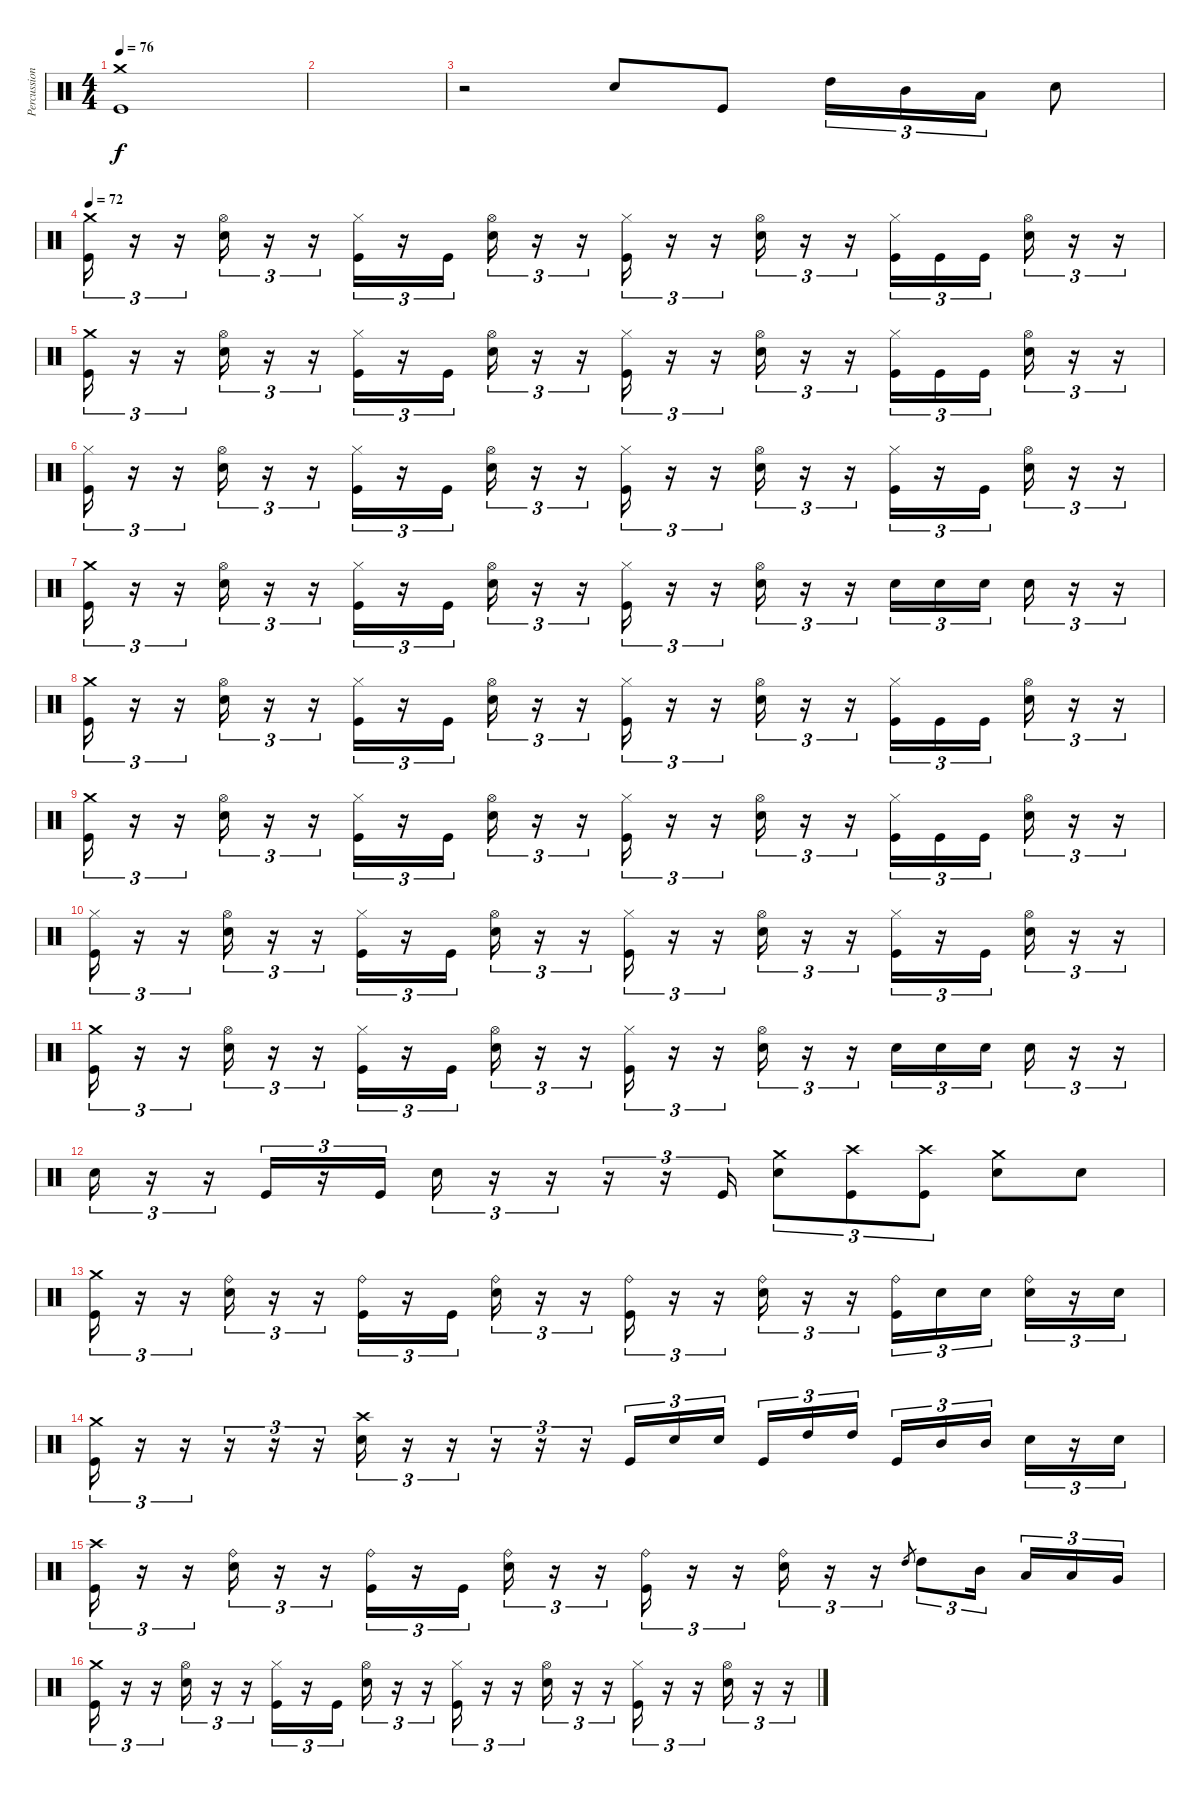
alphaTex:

\track ("Percussion" "Percussion") {instrument percussion}
\staff {score}
\articulation defaults
\ts (4 4)
\tempo 76
\clef neutral
\ks c
("Crash medium (hit)" "Kick (hit)").1{dy f} |
|
r.2 "Electric Snare (hit)".8 "Kick (hit)".8 "High Tom (hit)".16{tu (3 2)} "Mid Tom (hit)".16{tu (3 2)} "Low Tom (hit)".16{tu (3 2)} "Electric Snare (hit)".8 |
\tempo 72
("Crash medium (hit)" "Kick (hit)").16{tu (3 2)} r.16{tu (3 2)} r.16{tu (3 2)} ("Hi-Hat (open)" "Electric Snare (hit)").16{tu (3 2)} r.16{tu (3 2)} r.16{tu (3 2)} ("Hi-Hat (closed)" "Kick (hit)").16{tu (3 2)} r.16{tu (3 2)} "Kick (hit)".16{tu (3 2)} ("Hi-Hat (open)" "Electric Snare (hit)").16{tu (3 2)} r.16{tu (3 2)} r.16{tu (3 2)} ("Hi-Hat (closed)" "Kick (hit)").16{tu (3 2)} r.16{tu (3 2)} r.16{tu (3 2)} ("Hi-Hat (open)" "Electric Snare (hit)").16{tu (3 2)} r.16{tu (3 2)} r.16{tu (3 2)} ("Hi-Hat (closed)" "Kick (hit)").16{tu (3 2)} "Kick (hit)".16{tu (3 2)} "Kick (hit)".16{tu (3 2)} ("Hi-Hat (open)" "Electric Snare (hit)").16{tu (3 2)} r.16{tu (3 2)} r.16{tu (3 2)} |
("Crash medium (hit)" "Kick (hit)").16{tu (3 2)} r.16{tu (3 2)} r.16{tu (3 2)} ("Hi-Hat (open)" "Electric Snare (hit)").16{tu (3 2)} r.16{tu (3 2)} r.16{tu (3 2)} ("Hi-Hat (closed)" "Kick (hit)").16{tu (3 2)} r.16{tu (3 2)} "Kick (hit)".16{tu (3 2)} ("Hi-Hat (open)" "Electric Snare (hit)").16{tu (3 2)} r.16{tu (3 2)} r.16{tu (3 2)} ("Hi-Hat (closed)" "Kick (hit)").16{tu (3 2)} r.16{tu (3 2)} r.16{tu (3 2)} ("Hi-Hat (open)" "Electric Snare (hit)").16{tu (3 2)} r.16{tu (3 2)} r.16{tu (3 2)} ("Hi-Hat (closed)" "Kick (hit)").16{tu (3 2)} "Kick (hit)".16{tu (3 2)} "Kick (hit)".16{tu (3 2)} ("Hi-Hat (open)" "Electric Snare (hit)").16{tu (3 2)} r.16{tu (3 2)} r.16{tu (3 2)} |
("Hi-Hat (closed)" "Kick (hit)").16{tu (3 2)} r.16{tu (3 2)} r.16{tu (3 2)} ("Hi-Hat (open)" "Electric Snare (hit)").16{tu (3 2)} r.16{tu (3 2)} r.16{tu (3 2)} ("Hi-Hat (closed)" "Kick (hit)").16{tu (3 2)} r.16{tu (3 2)} "Kick (hit)".16{tu (3 2)} ("Hi-Hat (open)" "Electric Snare (hit)").16{tu (3 2)} r.16{tu (3 2)} r.16{tu (3 2)} ("Hi-Hat (closed)" "Kick (hit)").16{tu (3 2)} r.16{tu (3 2)} r.16{tu (3 2)} ("Hi-Hat (open)" "Electric Snare (hit)").16{tu (3 2)} r.16{tu (3 2)} r.16{tu (3 2)} ("Hi-Hat (closed)" "Kick (hit)").16{tu (3 2)} r.16{tu (3 2)} "Kick (hit)".16{tu (3 2)} ("Hi-Hat (open)" "Electric Snare (hit)").16{tu (3 2)} r.16{tu (3 2)} r.16{tu (3 2)} |
("Crash medium (hit)" "Kick (hit)").16{tu (3 2)} r.16{tu (3 2)} r.16{tu (3 2)} ("Hi-Hat (open)" "Electric Snare (hit)").16{tu (3 2)} r.16{tu (3 2)} r.16{tu (3 2)} ("Hi-Hat (closed)" "Kick (hit)").16{tu (3 2)} r.16{tu (3 2)} "Kick (hit)".16{tu (3 2)} ("Hi-Hat (open)" "Electric Snare (hit)").16{tu (3 2)} r.16{tu (3 2)} r.16{tu (3 2)} ("Hi-Hat (closed)" "Kick (hit)").16{tu (3 2)} r.16{tu (3 2)} r.16{tu (3 2)} ("Hi-Hat (open)" "Electric Snare (hit)").16{tu (3 2)} r.16{tu (3 2)} r.16{tu (3 2)} "Electric Snare (hit)".16{tu (3 2)} "Electric Snare (hit)".16{tu (3 2)} "Electric Snare (hit)".16{tu (3 2)} "Electric Snare (hit)".16{tu (3 2)} r.16{tu (3 2)} r.16{tu (3 2)} |
("Crash medium (hit)" "Kick (hit)").16{tu (3 2)} r.16{tu (3 2)} r.16{tu (3 2)} ("Hi-Hat (open)" "Electric Snare (hit)").16{tu (3 2)} r.16{tu (3 2)} r.16{tu (3 2)} ("Hi-Hat (closed)" "Kick (hit)").16{tu (3 2)} r.16{tu (3 2)} "Kick (hit)".16{tu (3 2)} ("Hi-Hat (open)" "Electric Snare (hit)").16{tu (3 2)} r.16{tu (3 2)} r.16{tu (3 2)} ("Hi-Hat (closed)" "Kick (hit)").16{tu (3 2)} r.16{tu (3 2)} r.16{tu (3 2)} ("Hi-Hat (open)" "Electric Snare (hit)").16{tu (3 2)} r.16{tu (3 2)} r.16{tu (3 2)} ("Hi-Hat (closed)" "Kick (hit)").16{tu (3 2)} "Kick (hit)".16{tu (3 2)} "Kick (hit)".16{tu (3 2)} ("Hi-Hat (open)" "Electric Snare (hit)").16{tu (3 2)} r.16{tu (3 2)} r.16{tu (3 2)} |
("Crash medium (hit)" "Kick (hit)").16{tu (3 2)} r.16{tu (3 2)} r.16{tu (3 2)} ("Hi-Hat (open)" "Electric Snare (hit)").16{tu (3 2)} r.16{tu (3 2)} r.16{tu (3 2)} ("Hi-Hat (closed)" "Kick (hit)").16{tu (3 2)} r.16{tu (3 2)} "Kick (hit)".16{tu (3 2)} ("Hi-Hat (open)" "Electric Snare (hit)").16{tu (3 2)} r.16{tu (3 2)} r.16{tu (3 2)} ("Hi-Hat (closed)" "Kick (hit)").16{tu (3 2)} r.16{tu (3 2)} r.16{tu (3 2)} ("Hi-Hat (open)" "Electric Snare (hit)").16{tu (3 2)} r.16{tu (3 2)} r.16{tu (3 2)} ("Hi-Hat (closed)" "Kick (hit)").16{tu (3 2)} "Kick (hit)".16{tu (3 2)} "Kick (hit)".16{tu (3 2)} ("Hi-Hat (open)" "Electric Snare (hit)").16{tu (3 2)} r.16{tu (3 2)} r.16{tu (3 2)} |
("Hi-Hat (closed)" "Kick (hit)").16{tu (3 2)} r.16{tu (3 2)} r.16{tu (3 2)} ("Hi-Hat (open)" "Electric Snare (hit)").16{tu (3 2)} r.16{tu (3 2)} r.16{tu (3 2)} ("Hi-Hat (closed)" "Kick (hit)").16{tu (3 2)} r.16{tu (3 2)} "Kick (hit)".16{tu (3 2)} ("Hi-Hat (open)" "Electric Snare (hit)").16{tu (3 2)} r.16{tu (3 2)} r.16{tu (3 2)} ("Hi-Hat (closed)" "Kick (hit)").16{tu (3 2)} r.16{tu (3 2)} r.16{tu (3 2)} ("Hi-Hat (open)" "Electric Snare (hit)").16{tu (3 2)} r.16{tu (3 2)} r.16{tu (3 2)} ("Hi-Hat (closed)" "Kick (hit)").16{tu (3 2)} r.16{tu (3 2)} "Kick (hit)".16{tu (3 2)} ("Hi-Hat (open)" "Electric Snare (hit)").16{tu (3 2)} r.16{tu (3 2)} r.16{tu (3 2)} |
("Crash medium (hit)" "Kick (hit)").16{tu (3 2)} r.16{tu (3 2)} r.16{tu (3 2)} ("Hi-Hat (open)" "Electric Snare (hit)").16{tu (3 2)} r.16{tu (3 2)} r.16{tu (3 2)} ("Hi-Hat (closed)" "Kick (hit)").16{tu (3 2)} r.16{tu (3 2)} "Kick (hit)".16{tu (3 2)} ("Hi-Hat (open)" "Electric Snare (hit)").16{tu (3 2)} r.16{tu (3 2)} r.16{tu (3 2)} ("Hi-Hat (closed)" "Kick (hit)").16{tu (3 2)} r.16{tu (3 2)} r.16{tu (3 2)} ("Hi-Hat (open)" "Electric Snare (hit)").16{tu (3 2)} r.16{tu (3 2)} r.16{tu (3 2)} "Electric Snare (hit)".16{tu (3 2)} "Electric Snare (hit)".16{tu (3 2)} "Electric Snare (hit)".16{tu (3 2)} "Electric Snare (hit)".16{tu (3 2)} r.16{tu (3 2)} r.16{tu (3 2)} |
"Electric Snare (hit)".16{tu (3 2)} r.16{tu (3 2)} r.16{tu (3 2)} "Kick (hit)".16{tu (3 2)} r.16{tu (3 2)} "Kick (hit)".16{tu (3 2)} "Electric Snare (hit)".16{tu (3 2)} r.16{tu (3 2)} r.16{tu (3 2)} r.16{tu (3 2)} r.16{tu (3 2)} "Kick (hit)".16{tu (3 2)} ("Crash medium (hit)" "Electric Snare (hit)").8{tu (3 2)} ("Crash high (hit)" "Kick (hit)").8{tu (3 2)} ("Crash high (hit)" "Kick (hit)").8{tu (3 2)} ("Crash medium (hit)" "Electric Snare (hit)").8 "Electric Snare (hit)".8 |
("Crash medium (hit)" "Kick (hit)").16{tu (3 2)} r.16{tu (3 2)} r.16{tu (3 2)} ("Ride (bell)" "Electric Snare (hit)").16{tu (3 2)} r.16{tu (3 2)} r.16{tu (3 2)} ("Ride (bell)" "Kick (hit)").16{tu (3 2)} r.16{tu (3 2)} "Kick (hit)".16{tu (3 2)} ("Ride (bell)" "Electric Snare (hit)").16{tu (3 2)} r.16{tu (3 2)} r.16{tu (3 2)} ("Ride (bell)" "Kick (hit)").16{tu (3 2)} r.16{tu (3 2)} r.16{tu (3 2)} ("Ride (bell)" "Electric Snare (hit)").16{tu (3 2)} r.16{tu (3 2)} r.16{tu (3 2)} ("Ride (bell)" "Kick (hit)").16{tu (3 2)} "Electric Snare (hit)".16{tu (3 2)} "Electric Snare (hit)".16{tu (3 2)} ("Ride (bell)" "Electric Snare (hit)").16{tu (3 2)} r.16{tu (3 2)} "Electric Snare (hit)".16{tu (3 2)} |
("Crash medium (hit)" "Kick (hit)").16{tu (3 2)} r.16{tu (3 2)} r.16{tu (3 2)} r.16{tu (3 2)} r.16{tu (3 2)} r.16{tu (3 2)} ("Crash high (hit)" "Electric Snare (hit)").16{tu (3 2)} r.16{tu (3 2)} r.16{tu (3 2)} r.16{tu (3 2)} r.16{tu (3 2)} r.16{tu (3 2)} "Kick (hit)".16{tu (3 2)} "Electric Snare (hit)".16{tu (3 2)} "Electric Snare (hit)".16{tu (3 2)} "Kick (hit)".16{tu (3 2)} "High Tom (hit)".16{tu (3 2)} "High Tom (hit)".16{tu (3 2)} "Kick (hit)".16{tu (3 2)} "Mid Tom (hit)".16{tu (3 2)} "Mid Tom (hit)".16{tu (3 2)} "Electric Snare (hit)".16{tu (3 2)} r.16{tu (3 2)} "Electric Snare (hit)".16{tu (3 2)} |
("Crash high (hit)" "Kick (hit)").16{tu (3 2)} r.16{tu (3 2)} r.16{tu (3 2)} ("Ride (bell)" "Electric Snare (hit)").16{tu (3 2)} r.16{tu (3 2)} r.16{tu (3 2)} ("Ride (bell)" "Kick (hit)").16{tu (3 2)} r.16{tu (3 2)} "Kick (hit)".16{tu (3 2)} ("Ride (bell)" "Electric Snare (hit)").16{tu (3 2)} r.16{tu (3 2)} r.16{tu (3 2)} ("Ride (bell)" "Kick (hit)").16{tu (3 2)} r.16{tu (3 2)} r.16{tu (3 2)} ("Ride (bell)" "Electric Snare (hit)").16{tu (3 2)} r.16{tu (3 2)} r.16{tu (3 2)} "High Tom (hit)".8{gr} "High Tom (hit)".8{tu (3 2)} "Mid Tom (hit)".16{tu (3 2)} "Low Tom (hit)".16{tu (3 2)} "Low Tom (hit)".16{tu (3 2)} "Very Low Tom (hit)".16{tu (3 2)} |
("Crash medium (hit)" "Kick (hit)").16{tu (3 2)} r.16{tu (3 2)} r.16{tu (3 2)} ("Hi-Hat (open)" "Electric Snare (hit)").16{tu (3 2)} r.16{tu (3 2)} r.16{tu (3 2)} ("Hi-Hat (closed)" "Kick (hit)").16{tu (3 2)} r.16{tu (3 2)} "Kick (hit)".16{tu (3 2)} ("Hi-Hat (open)" "Electric Snare (hit)").16{tu (3 2)} r.16{tu (3 2)} r.16{tu (3 2)} ("Hi-Hat (closed)" "Kick (hit)").16{tu (3 2)} r.16{tu (3 2)} r.16{tu (3 2)} ("Hi-Hat (open)" "Electric Snare (hit)").16{tu (3 2)} r.16{tu (3 2)} r.16{tu (3 2)} ("Hi-Hat (closed)" "Kick (hit)").16{tu (3 2)} r.16{tu (3 2)} r.16{tu (3 2)} ("Hi-Hat (open)" "Electric Snare (hit)").16{tu (3 2)} r.16{tu (3 2)} r.16{tu (3 2)}
